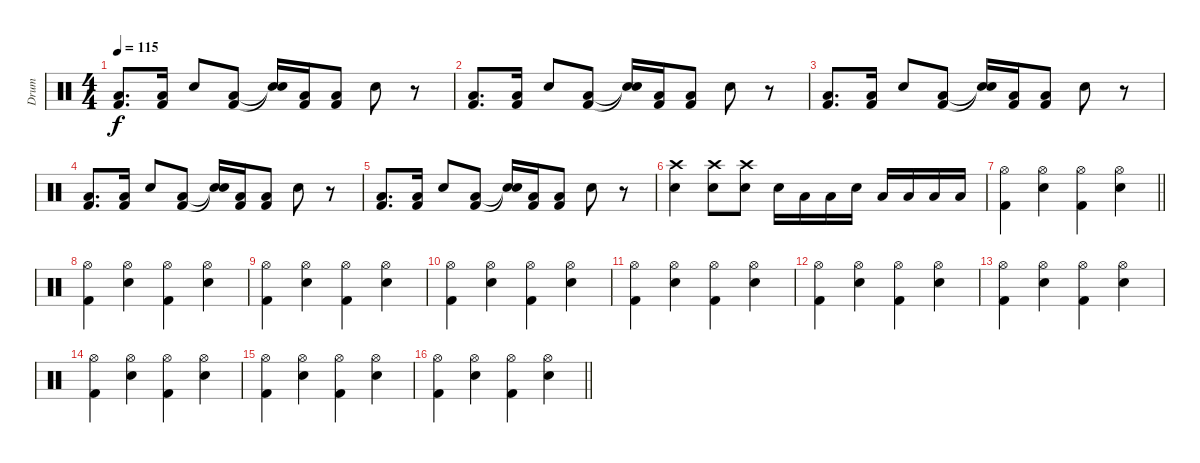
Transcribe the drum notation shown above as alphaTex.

\track ("Drum" "Drum") {instrument percussion}
\staff {score}
\articulation defaults
\ts (4 4)
\tempo 115
\clef neutral
\ks c
("Kick (hit) 2" "Low Floor Tom (hit)").8{d dy f} ("Kick (hit) 2" "Low Floor Tom (hit)").16 "Snare (hit) 2".8 ("Kick (hit) 2" "Low Floor Tom (hit)").8 ("Snare (hit)"{t} "Snare (hit)"{t}).16 ("Kick (hit) 2" "Low Floor Tom (hit)").16 ("Kick (hit) 2" "Low Floor Tom (hit)").8 "Snare (hit) 2".8 r.8 |
("Kick (hit) 2" "Low Floor Tom (hit)").8{d} ("Kick (hit) 2" "Low Floor Tom (hit)").16 "Snare (hit) 2".8 ("Kick (hit) 2" "Low Floor Tom (hit)").8 ("Snare (hit)"{t} "Snare (hit)"{t}).16 ("Kick (hit) 2" "Low Floor Tom (hit)").16 ("Kick (hit) 2" "Low Floor Tom (hit)").8 "Snare (hit) 2".8 r.8 |
("Kick (hit) 2" "Low Floor Tom (hit)").8{d} ("Kick (hit) 2" "Low Floor Tom (hit)").16 "Snare (hit) 2".8 ("Kick (hit) 2" "Low Floor Tom (hit)").8 ("Snare (hit)"{t} "Snare (hit)"{t}).16 ("Kick (hit) 2" "Low Floor Tom (hit)").16 ("Kick (hit) 2" "Low Floor Tom (hit)").8 "Snare (hit) 2".8 r.8 |
("Kick (hit) 2" "Low Floor Tom (hit)").8{d} ("Kick (hit) 2" "Low Floor Tom (hit)").16 "Snare (hit) 2".8 ("Kick (hit) 2" "Low Floor Tom (hit)").8 ("Snare (hit)"{t} "Snare (hit)"{t}).16 ("Kick (hit) 2" "Low Floor Tom (hit)").16 ("Kick (hit) 2" "Low Floor Tom (hit)").8 "Snare (hit) 2".8 r.8 |
("Kick (hit) 2" "Low Floor Tom (hit)").8{d} ("Kick (hit) 2" "Low Floor Tom (hit)").16 "Snare (hit) 2".8 ("Kick (hit) 2" "Low Floor Tom (hit)").8 ("Snare (hit)"{t} "Snare (hit)"{t}).16 ("Kick (hit) 2" "Low Floor Tom (hit)").16 ("Kick (hit) 2" "Low Floor Tom (hit)").8 "Snare (hit) 2".8 r.8 |
("Snare (hit) 2" "Crash high (hit)").4 ("Snare (hit) 2" "Crash high (hit)").8 ("Snare (hit) 2" "Crash high (hit)").8 "Snare (hit) 2".16 "Low Floor Tom (hit)".16 "Low Floor Tom (hit)".16 "Snare (hit) 2".16 "Low Floor Tom (hit)".16 "Low Floor Tom (hit)".16 "Low Floor Tom (hit)".16 "Low Tom (hit)".16 |
\barLineRight lightlight
("Kick (hit) 2" "Hi-Hat (open)").4 ("Snare (hit) 2" "Hi-Hat (open)").4 ("Kick (hit) 2" "Hi-Hat (open)").4 ("Snare (hit) 2" "Hi-Hat (open)").4 |
\section ("" "")
("Kick (hit) 2" "Hi-Hat (open)").4 ("Snare (hit) 2" "Hi-Hat (open)").4 ("Kick (hit) 2" "Hi-Hat (open)").4 ("Snare (hit) 2" "Hi-Hat (open)").4 |
("Kick (hit) 2" "Hi-Hat (open)").4 ("Snare (hit) 2" "Hi-Hat (open)").4 ("Kick (hit) 2" "Hi-Hat (open)").4 ("Snare (hit) 2" "Hi-Hat (open)").4 |
("Kick (hit) 2" "Hi-Hat (open)").4 ("Snare (hit) 2" "Hi-Hat (open)").4 ("Kick (hit) 2" "Hi-Hat (open)").4 ("Snare (hit) 2" "Hi-Hat (open)").4 |
("Kick (hit) 2" "Hi-Hat (open)").4 ("Snare (hit) 2" "Hi-Hat (open)").4 ("Kick (hit) 2" "Hi-Hat (open)").4 ("Snare (hit) 2" "Hi-Hat (open)").4 |
("Kick (hit) 2" "Hi-Hat (open)").4 ("Snare (hit) 2" "Hi-Hat (open)").4 ("Kick (hit) 2" "Hi-Hat (open)").4 ("Snare (hit) 2" "Hi-Hat (open)").4 |
("Kick (hit) 2" "Hi-Hat (open)").4 ("Snare (hit) 2" "Hi-Hat (open)").4 ("Kick (hit) 2" "Hi-Hat (open)").4 ("Snare (hit) 2" "Hi-Hat (open)").4 |
("Kick (hit) 2" "Hi-Hat (open)").4 ("Snare (hit) 2" "Hi-Hat (open)").4 ("Kick (hit) 2" "Hi-Hat (open)").4 ("Snare (hit) 2" "Hi-Hat (open)").4 |
("Kick (hit) 2" "Hi-Hat (open)").4 ("Snare (hit) 2" "Hi-Hat (open)").4 ("Kick (hit) 2" "Hi-Hat (open)").4 ("Snare (hit) 2" "Hi-Hat (open)").4 |
\barLineRight lightlight
("Kick (hit) 2" "Hi-Hat (open)").4 ("Snare (hit) 2" "Hi-Hat (open)").4 ("Kick (hit) 2" "Hi-Hat (open)").4 ("Snare (hit) 2" "Hi-Hat (open)").4
